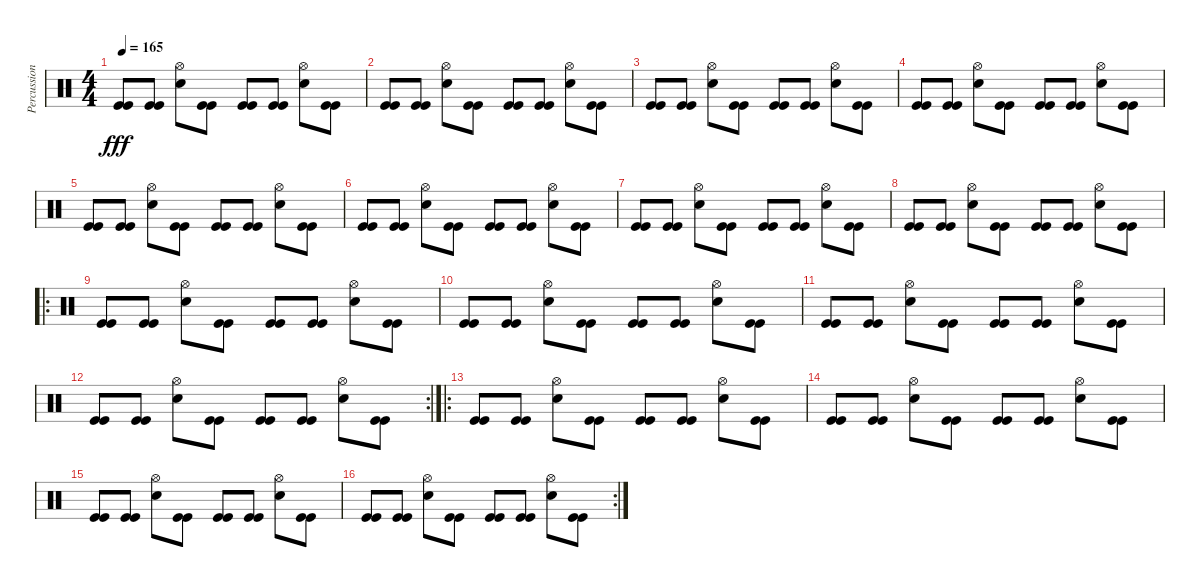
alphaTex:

\track ("Percussions" "Percussion") {instrument percussion}
\staff {score}
\articulation defaults
\ts (4 4)
\tempo 165
\clef neutral
\ks c
("Kick (hit)" "Kick (hit)").8{dy fff} ("Kick (hit)" "Kick (hit)").8 ("Snare (hit) 2" "Hi-Hat (open)").8 ("Kick (hit)" "Kick (hit)").8 ("Kick (hit)" "Kick (hit)").8 ("Kick (hit)" "Kick (hit)").8 ("Snare (hit) 2" "Hi-Hat (open)").8 ("Kick (hit)" "Kick (hit)").8 |
("Kick (hit)" "Kick (hit)").8 ("Kick (hit)" "Kick (hit)").8 ("Snare (hit) 2" "Hi-Hat (open)").8 ("Kick (hit)" "Kick (hit)").8 ("Kick (hit)" "Kick (hit)").8 ("Kick (hit)" "Kick (hit)").8 ("Snare (hit) 2" "Hi-Hat (open)").8 ("Kick (hit)" "Kick (hit)").8 |
("Kick (hit)" "Kick (hit)").8 ("Kick (hit)" "Kick (hit)").8 ("Snare (hit) 2" "Hi-Hat (open)").8 ("Kick (hit)" "Kick (hit)").8 ("Kick (hit)" "Kick (hit)").8 ("Kick (hit)" "Kick (hit)").8 ("Snare (hit) 2" "Hi-Hat (open)").8 ("Kick (hit)" "Kick (hit)").8 |
("Kick (hit)" "Kick (hit)").8 ("Kick (hit)" "Kick (hit)").8 ("Snare (hit) 2" "Hi-Hat (open)").8 ("Kick (hit)" "Kick (hit)").8 ("Kick (hit)" "Kick (hit)").8 ("Kick (hit)" "Kick (hit)").8 ("Snare (hit) 2" "Hi-Hat (open)").8 ("Kick (hit)" "Kick (hit)").8 |
("Kick (hit)" "Kick (hit)").8 ("Kick (hit)" "Kick (hit)").8 ("Snare (hit) 2" "Hi-Hat (open)").8 ("Kick (hit)" "Kick (hit)").8 ("Kick (hit)" "Kick (hit)").8 ("Kick (hit)" "Kick (hit)").8 ("Snare (hit) 2" "Hi-Hat (open)").8 ("Kick (hit)" "Kick (hit)").8 |
("Kick (hit)" "Kick (hit)").8 ("Kick (hit)" "Kick (hit)").8 ("Snare (hit) 2" "Hi-Hat (open)").8 ("Kick (hit)" "Kick (hit)").8 ("Kick (hit)" "Kick (hit)").8 ("Kick (hit)" "Kick (hit)").8 ("Snare (hit) 2" "Hi-Hat (open)").8 ("Kick (hit)" "Kick (hit)").8 |
("Kick (hit)" "Kick (hit)").8 ("Kick (hit)" "Kick (hit)").8 ("Snare (hit) 2" "Hi-Hat (open)").8 ("Kick (hit)" "Kick (hit)").8 ("Kick (hit)" "Kick (hit)").8 ("Kick (hit)" "Kick (hit)").8 ("Snare (hit) 2" "Hi-Hat (open)").8 ("Kick (hit)" "Kick (hit)").8 |
("Kick (hit)" "Kick (hit)").8 ("Kick (hit)" "Kick (hit)").8 ("Snare (hit) 2" "Hi-Hat (open)").8 ("Kick (hit)" "Kick (hit)").8 ("Kick (hit)" "Kick (hit)").8 ("Kick (hit)" "Kick (hit)").8 ("Snare (hit) 2" "Hi-Hat (open)").8 ("Kick (hit)" "Kick (hit)").8 |
\ro
("Kick (hit)" "Kick (hit)").8 ("Kick (hit)" "Kick (hit)").8 ("Snare (hit) 2" "Hi-Hat (open)").8 ("Kick (hit)" "Kick (hit)").8 ("Kick (hit)" "Kick (hit)").8 ("Kick (hit)" "Kick (hit)").8 ("Snare (hit) 2" "Hi-Hat (open)").8 ("Kick (hit)" "Kick (hit)").8 |
("Kick (hit)" "Kick (hit)").8 ("Kick (hit)" "Kick (hit)").8 ("Snare (hit) 2" "Hi-Hat (open)").8 ("Kick (hit)" "Kick (hit)").8 ("Kick (hit)" "Kick (hit)").8 ("Kick (hit)" "Kick (hit)").8 ("Snare (hit) 2" "Hi-Hat (open)").8 ("Kick (hit)" "Kick (hit)").8 |
("Kick (hit)" "Kick (hit)").8 ("Kick (hit)" "Kick (hit)").8 ("Snare (hit) 2" "Hi-Hat (open)").8 ("Kick (hit)" "Kick (hit)").8 ("Kick (hit)" "Kick (hit)").8 ("Kick (hit)" "Kick (hit)").8 ("Snare (hit) 2" "Hi-Hat (open)").8 ("Kick (hit)" "Kick (hit)").8 |
\rc 2
("Kick (hit)" "Kick (hit)").8 ("Kick (hit)" "Kick (hit)").8 ("Snare (hit) 2" "Hi-Hat (open)").8 ("Kick (hit)" "Kick (hit)").8 ("Kick (hit)" "Kick (hit)").8 ("Kick (hit)" "Kick (hit)").8 ("Snare (hit) 2" "Hi-Hat (open)").8 ("Kick (hit)" "Kick (hit)").8 |
\ro
("Kick (hit)" "Kick (hit)").8 ("Kick (hit)" "Kick (hit)").8 ("Snare (hit) 2" "Hi-Hat (open)").8 ("Kick (hit)" "Kick (hit)").8 ("Kick (hit)" "Kick (hit)").8 ("Kick (hit)" "Kick (hit)").8 ("Snare (hit) 2" "Hi-Hat (open)").8 ("Kick (hit)" "Kick (hit)").8 |
("Kick (hit)" "Kick (hit)").8 ("Kick (hit)" "Kick (hit)").8 ("Snare (hit) 2" "Hi-Hat (open)").8 ("Kick (hit)" "Kick (hit)").8 ("Kick (hit)" "Kick (hit)").8 ("Kick (hit)" "Kick (hit)").8 ("Snare (hit) 2" "Hi-Hat (open)").8 ("Kick (hit)" "Kick (hit)").8 |
("Kick (hit)" "Kick (hit)").8 ("Kick (hit)" "Kick (hit)").8 ("Snare (hit) 2" "Hi-Hat (open)").8 ("Kick (hit)" "Kick (hit)").8 ("Kick (hit)" "Kick (hit)").8 ("Kick (hit)" "Kick (hit)").8 ("Snare (hit) 2" "Hi-Hat (open)").8 ("Kick (hit)" "Kick (hit)").8 |
\rc 2
("Kick (hit)" "Kick (hit)").8 ("Kick (hit)" "Kick (hit)").8 ("Snare (hit) 2" "Hi-Hat (open)").8 ("Kick (hit)" "Kick (hit)").8 ("Kick (hit)" "Kick (hit)").8 ("Kick (hit)" "Kick (hit)").8 ("Snare (hit) 2" "Hi-Hat (open)").8 ("Kick (hit)" "Kick (hit)").8
